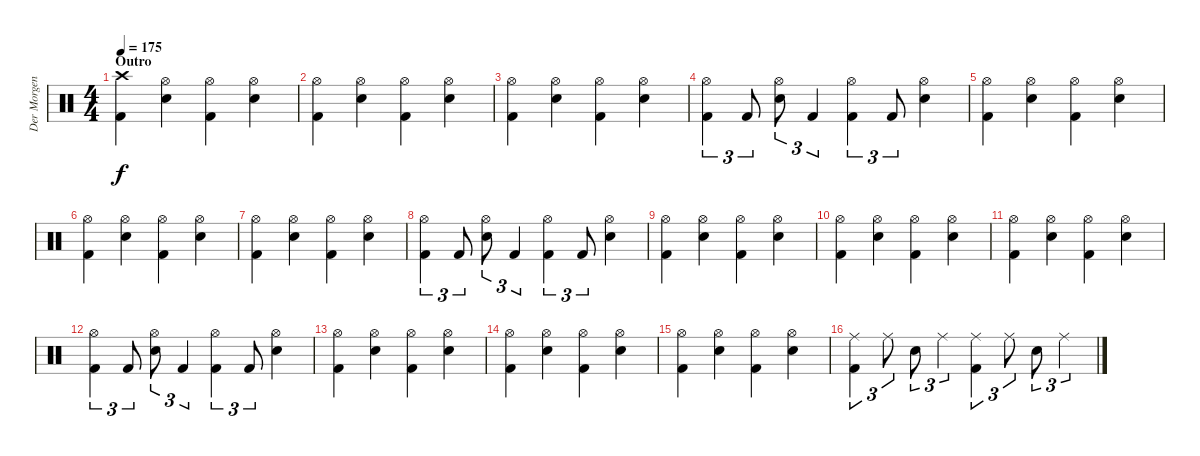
\track ("Der Morgenstern" "Der Morgen") {instrument percussion}
\staff {score}
\articulation defaults
\ts (4 4)
\section ("" "Outro")
\tempo 175
\clef neutral
\ks c
("Crash high (hit)" "Kick (hit) 2").4{dy f} ("Hi-Hat (open)" "Electric Snare (hit)").4 ("Hi-Hat (open)" "Kick (hit) 2").4 ("Hi-Hat (open)" "Electric Snare (hit)").4 |
("Hi-Hat (open)" "Kick (hit) 2").4 ("Hi-Hat (open)" "Electric Snare (hit)").4 ("Hi-Hat (open)" "Kick (hit) 2").4 ("Hi-Hat (open)" "Electric Snare (hit)").4 |
("Hi-Hat (open)" "Kick (hit) 2").4 ("Hi-Hat (open)" "Electric Snare (hit)").4 ("Hi-Hat (open)" "Kick (hit) 2").4 ("Hi-Hat (open)" "Electric Snare (hit)").4 |
("Hi-Hat (open)" "Kick (hit) 2").4{tu (3 2)} "Kick (hit) 2".8{tu (3 2)} ("Hi-Hat (open)" "Electric Snare (hit)").8{tu (3 2)} "Kick (hit) 2".4{tu (3 2)} ("Hi-Hat (open)" "Kick (hit) 2").4{tu (3 2)} "Kick (hit) 2".8{tu (3 2)} ("Hi-Hat (open)" "Electric Snare (hit)").4 |
("Hi-Hat (open)" "Kick (hit) 2").4 ("Hi-Hat (open)" "Electric Snare (hit)").4 ("Hi-Hat (open)" "Kick (hit) 2").4 ("Hi-Hat (open)" "Electric Snare (hit)").4 |
("Hi-Hat (open)" "Kick (hit) 2").4 ("Hi-Hat (open)" "Electric Snare (hit)").4 ("Hi-Hat (open)" "Kick (hit) 2").4 ("Hi-Hat (open)" "Electric Snare (hit)").4 |
("Hi-Hat (open)" "Kick (hit) 2").4 ("Hi-Hat (open)" "Electric Snare (hit)").4 ("Hi-Hat (open)" "Kick (hit) 2").4 ("Hi-Hat (open)" "Electric Snare (hit)").4 |
("Hi-Hat (open)" "Kick (hit) 2").4{tu (3 2)} "Kick (hit) 2".8{tu (3 2)} ("Hi-Hat (open)" "Electric Snare (hit)").8{tu (3 2)} "Kick (hit) 2".4{tu (3 2)} ("Hi-Hat (open)" "Kick (hit) 2").4{tu (3 2)} "Kick (hit) 2".8{tu (3 2)} ("Hi-Hat (open)" "Electric Snare (hit)").4 |
("Hi-Hat (open)" "Kick (hit) 2").4 ("Hi-Hat (open)" "Electric Snare (hit)").4 ("Hi-Hat (open)" "Kick (hit) 2").4 ("Hi-Hat (open)" "Electric Snare (hit)").4 |
("Hi-Hat (open)" "Kick (hit) 2").4 ("Hi-Hat (open)" "Electric Snare (hit)").4 ("Hi-Hat (open)" "Kick (hit) 2").4 ("Hi-Hat (open)" "Electric Snare (hit)").4 |
("Hi-Hat (open)" "Kick (hit) 2").4 ("Hi-Hat (open)" "Electric Snare (hit)").4 ("Hi-Hat (open)" "Kick (hit) 2").4 ("Hi-Hat (open)" "Electric Snare (hit)").4 |
("Hi-Hat (open)" "Kick (hit) 2").4{tu (3 2)} "Kick (hit) 2".8{tu (3 2)} ("Hi-Hat (open)" "Electric Snare (hit)").8{tu (3 2)} "Kick (hit) 2".4{tu (3 2)} ("Hi-Hat (open)" "Kick (hit) 2").4{tu (3 2)} "Kick (hit) 2".8{tu (3 2)} ("Hi-Hat (open)" "Electric Snare (hit)").4 |
("Hi-Hat (open)" "Kick (hit) 2").4 ("Hi-Hat (open)" "Electric Snare (hit)").4 ("Hi-Hat (open)" "Kick (hit) 2").4 ("Hi-Hat (open)" "Electric Snare (hit)").4 |
("Hi-Hat (open)" "Kick (hit) 2").4 ("Hi-Hat (open)" "Electric Snare (hit)").4 ("Hi-Hat (open)" "Kick (hit) 2").4 ("Hi-Hat (open)" "Electric Snare (hit)").4 |
("Hi-Hat (open)" "Kick (hit) 2").4 ("Hi-Hat (open)" "Electric Snare (hit)").4 ("Hi-Hat (open)" "Kick (hit) 2").4 ("Hi-Hat (open)" "Electric Snare (hit)").4 |
("Ride (middle)" "Kick (hit) 2").4{tu (3 2)} "Ride (middle)".8{tu (3 2)} "Electric Snare (hit)".8{tu (3 2)} "Ride (middle)".4{tu (3 2)} ("Ride (middle)" "Kick (hit) 2").4{tu (3 2)} "Ride (middle)".8{tu (3 2)} "Electric Snare (hit)".8{tu (3 2)} "Ride (middle)".4{tu (3 2)}
